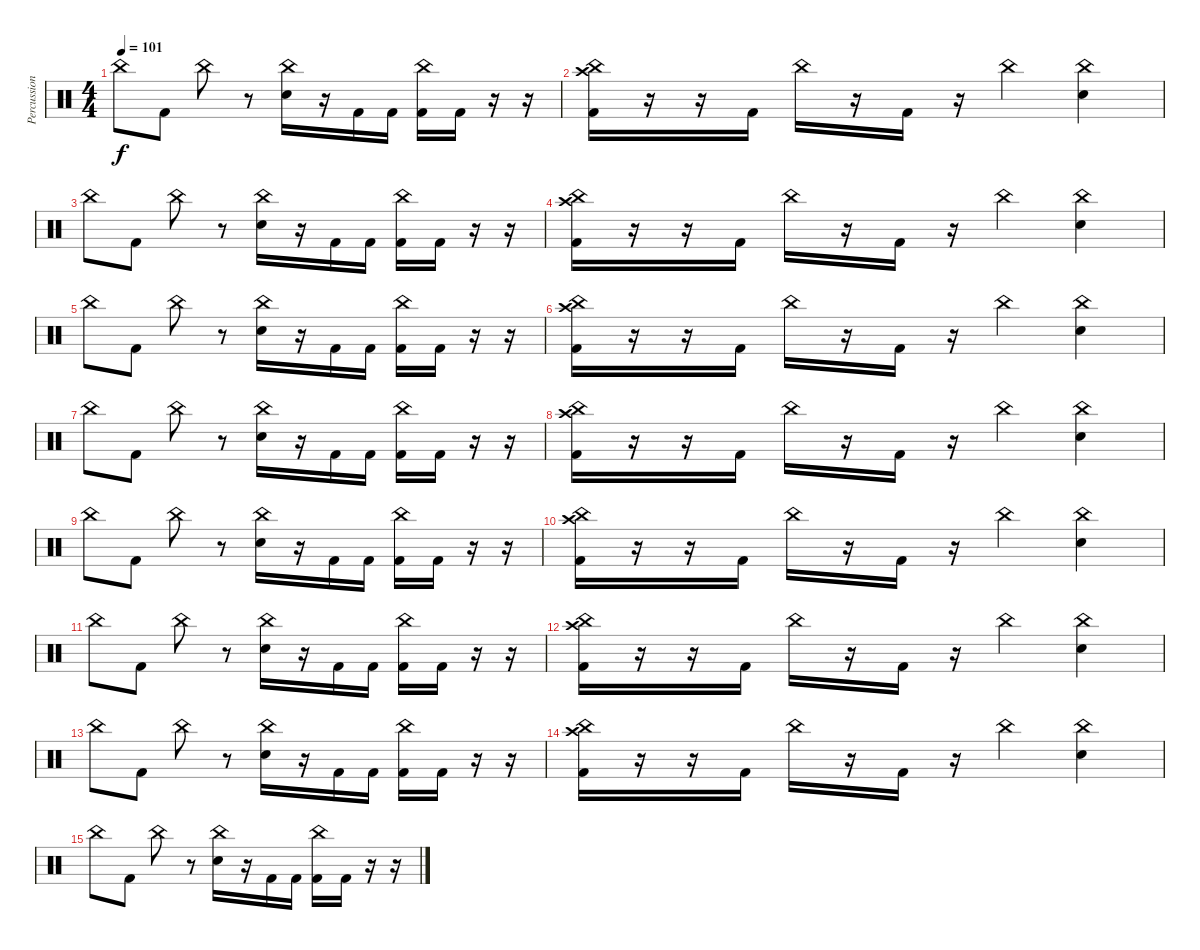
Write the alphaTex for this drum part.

\track ("Percussion" "Percussion") {instrument percussion}
\staff {score}
\articulation defaults
\ts (4 4)
\tempo 101
\clef neutral
\ks c "China (hit)".8{dy f} "Kick (hit) 2".8 "China (hit)".8
r.8 ("China (hit)" "Electric Snare (hit)").16 r.16 "Kick (hit) 2".16 "Kick (hit) 2".16 ("China (hit)" "Kick (hit) 2").16 "Kick (hit) 2".16 r.16 r.16 |
("Crash high (hit)" "China (hit)" "Kick (hit) 2").16 r.16 r.16 "Kick (hit) 2".16 "China (hit)".16 r.16 "Kick (hit) 2".16 r.16 "China (hit)".4 ("China (hit)" "Electric Snare (hit)").4 |
"China (hit)".8 "Kick (hit) 2".8 "China (hit)".8 r.8 ("China (hit)" "Electric Snare (hit)").16 r.16 "Kick (hit) 2".16 "Kick (hit) 2".16 ("China (hit)" "Kick (hit) 2").16 "Kick (hit) 2".16 r.16 r.16 |
("Crash high (hit)" "China (hit)" "Kick (hit) 2").16 r.16 r.16 "Kick (hit) 2".16 "China (hit)".16 r.16 "Kick (hit) 2".16 r.16 "China (hit)".4 ("China (hit)" "Electric Snare (hit)").4 |
"China (hit)".8 "Kick (hit) 2".8 "China (hit)".8 r.8 ("China (hit)" "Electric Snare (hit)").16 r.16 "Kick (hit) 2".16 "Kick (hit) 2".16 ("China (hit)" "Kick (hit) 2").16 "Kick (hit) 2".16 r.16 r.16 |
("Crash high (hit)" "China (hit)" "Kick (hit) 2").16 r.16 r.16 "Kick (hit) 2".16 "China (hit)".16 r.16 "Kick (hit) 2".16 r.16 "China (hit)".4 ("China (hit)" "Electric Snare (hit)").4 |
"China (hit)".8 "Kick (hit) 2".8 "China (hit)".8 r.8 ("China (hit)" "Electric Snare (hit)").16 r.16 "Kick (hit) 2".16 "Kick (hit) 2".16 ("China (hit)" "Kick (hit) 2").16 "Kick (hit) 2".16 r.16 r.16 |
("Crash high (hit)" "China (hit)" "Kick (hit) 2").16 r.16 r.16 "Kick (hit) 2".16 "China (hit)".16 r.16 "Kick (hit) 2".16 r.16 "China (hit)".4 ("China (hit)" "Electric Snare (hit)").4 |
"China (hit)".8 "Kick (hit) 2".8 "China (hit)".8 r.8 ("China (hit)" "Electric Snare (hit)").16 r.16 "Kick (hit) 2".16 "Kick (hit) 2".16 ("China (hit)" "Kick (hit) 2").16 "Kick (hit) 2".16 r.16 r.16 |
("Crash high (hit)" "China (hit)" "Kick (hit) 2").16 r.16 r.16 "Kick (hit) 2".16 "China (hit)".16 r.16 "Kick (hit) 2".16 r.16 "China (hit)".4 ("China (hit)" "Electric Snare (hit)").4 |
"China (hit)".8 "Kick (hit) 2".8 "China (hit)".8 r.8 ("China (hit)" "Electric Snare (hit)").16 r.16 "Kick (hit) 2".16 "Kick (hit) 2".16 ("China (hit)" "Kick (hit) 2").16 "Kick (hit) 2".16 r.16 r.16 |
("Crash high (hit)" "China (hit)" "Kick (hit) 2").16 r.16 r.16 "Kick (hit) 2".16 "China (hit)".16 r.16 "Kick (hit) 2".16 r.16 "China (hit)".4 ("China (hit)" "Electric Snare (hit)").4 |
"China (hit)".8 "Kick (hit) 2".8 "China (hit)".8 r.8 ("China (hit)" "Electric Snare (hit)").16 r.16 "Kick (hit) 2".16 "Kick (hit) 2".16 ("China (hit)" "Kick (hit) 2").16 "Kick (hit) 2".16 r.16 r.16 |
("Crash high (hit)" "China (hit)" "Kick (hit) 2").16 r.16 r.16 "Kick (hit) 2".16 "China (hit)".16 r.16 "Kick (hit) 2".16 r.16 "China (hit)".4 ("China (hit)" "Electric Snare (hit)").4 |
"China (hit)".8 "Kick (hit) 2".8 "China (hit)".8 r.8 ("China (hit)" "Electric Snare (hit)").16 r.16 "Kick (hit) 2".16 "Kick (hit) 2".16 ("China (hit)" "Kick (hit) 2").16 "Kick (hit) 2".16 r.16 r.16
